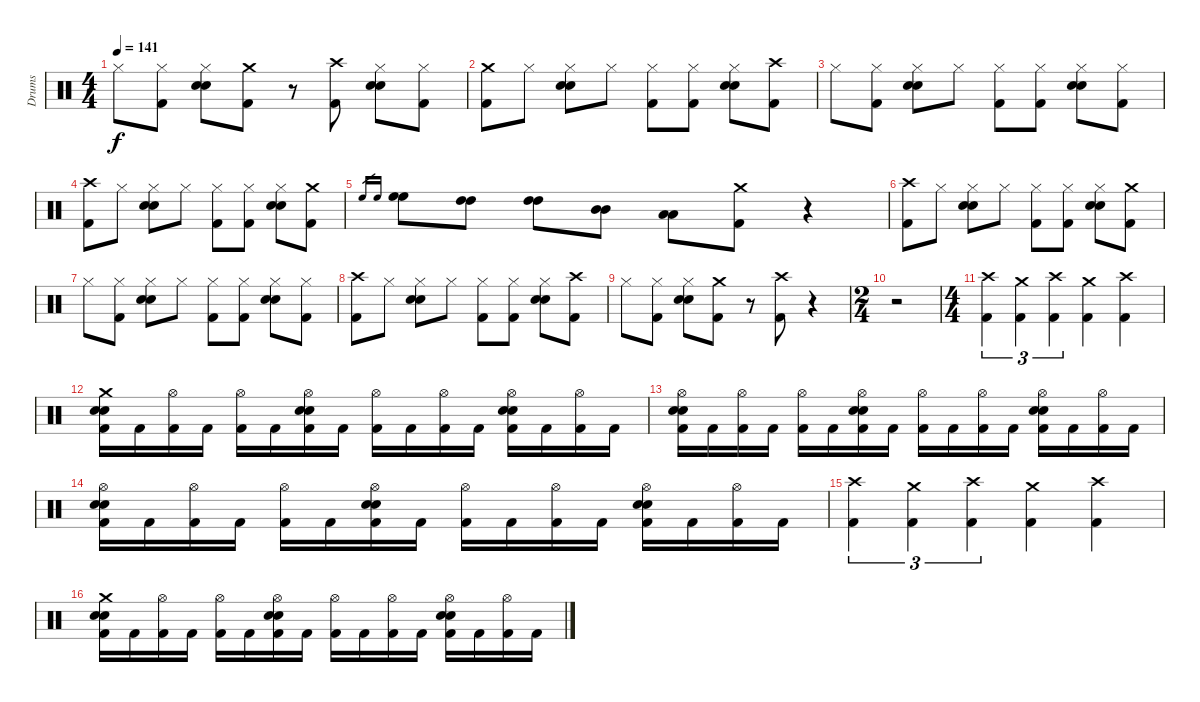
\track ("Drums " "Drums ") {instrument percussion}
\staff {score}
\articulation defaults
\ts (4 4)
\tempo 141
\clef neutral
\ks c "Hi-Hat (closed)".8{dy f}
("Hi-Hat (closed)" "Kick (hit) 2").8 ("Hi-Hat (closed)" "Snare (hit) 2" "Electric Snare (hit)").8 ("Crash medium (hit)" "Kick (hit) 2").8 r.8 ("Crash high (hit)" "Kick (hit) 2").8 ("Hi-Hat (closed)" "Snare (hit) 2" "Electric Snare (hit)").8 ("Hi-Hat (closed)" "Kick (hit) 2").8 |
("Crash medium (hit)" "Kick (hit) 2").8 "Hi-Hat (closed)".8 ("Hi-Hat (closed)" "Snare (hit) 2" "Electric Snare (hit)").8 "Hi-Hat (closed)".8 ("Hi-Hat (closed)" "Kick (hit) 2").8 ("Hi-Hat (closed)" "Kick (hit) 2").8 ("Hi-Hat (closed)" "Snare (hit) 2" "Electric Snare (hit)").8 ("Crash high (hit)" "Kick (hit) 2").8 |
"Hi-Hat (closed)".8 ("Hi-Hat (closed)" "Kick (hit) 2").8 ("Hi-Hat (closed)" "Snare (hit) 2" "Electric Snare (hit)").8 "Hi-Hat (closed)".8 ("Hi-Hat (closed)" "Kick (hit) 2").8 ("Hi-Hat (closed)" "Kick (hit) 2").8 ("Hi-Hat (closed)" "Snare (hit) 2" "Electric Snare (hit)").8 ("Hi-Hat (closed)" "Kick (hit) 2").8 |
("Crash high (hit)" "Kick (hit) 2").8 "Hi-Hat (closed)".8 ("Hi-Hat (closed)" "Snare (hit) 2" "Electric Snare (hit)").8 "Hi-Hat (closed)".8 ("Hi-Hat (closed)" "Kick (hit) 2").8 ("Hi-Hat (closed)" "Kick (hit) 2").8 ("Hi-Hat (closed)" "Snare (hit) 2" "Electric Snare (hit)").8 ("Crash medium (hit)" "Kick (hit) 2").8 |
"High Floor Tom (hit)".16{gr} "High Floor Tom (hit)".16{gr} ("High Floor Tom (hit)" "High Floor Tom (hit)").8 ("High Tom (hit)" "High Tom (hit)").8 ("High Tom (hit)" "High Tom (hit)").8 ("Mid Tom (hit)" "Mid Tom (hit)").8 ("Low Tom (hit)" "Low Tom (hit)").8 ("Crash medium (hit)" "Kick (hit) 2").8 r.4 |
("Crash high (hit)" "Kick (hit) 2").8 "Hi-Hat (closed)".8 ("Hi-Hat (closed)" "Snare (hit) 2" "Electric Snare (hit)").8 "Hi-Hat (closed)".8 ("Hi-Hat (closed)" "Kick (hit) 2").8 ("Hi-Hat (closed)" "Kick (hit) 2").8 ("Hi-Hat (closed)" "Snare (hit) 2" "Electric Snare (hit)").8 ("Crash medium (hit)" "Kick (hit) 2").8 |
"Hi-Hat (closed)".8 ("Hi-Hat (closed)" "Kick (hit) 2").8 ("Hi-Hat (closed)" "Snare (hit) 2" "Electric Snare (hit)").8 "Hi-Hat (closed)".8 ("Hi-Hat (closed)" "Kick (hit) 2").8 ("Hi-Hat (closed)" "Kick (hit) 2").8 ("Hi-Hat (closed)" "Snare (hit) 2" "Electric Snare (hit)").8 ("Hi-Hat (closed)" "Kick (hit) 2").8 |
("Crash high (hit)" "Kick (hit) 2").8 "Hi-Hat (closed)".8 ("Hi-Hat (closed)" "Snare (hit) 2" "Electric Snare (hit)").8 "Hi-Hat (closed)".8 ("Hi-Hat (closed)" "Kick (hit) 2").8 ("Hi-Hat (closed)" "Kick (hit) 2").8 ("Hi-Hat (closed)" "Snare (hit) 2" "Electric Snare (hit)").8 ("Crash high (hit)" "Kick (hit) 2").8 |
"Hi-Hat (closed)".8 ("Hi-Hat (closed)" "Kick (hit) 2").8 ("Hi-Hat (closed)" "Snare (hit) 2" "Electric Snare (hit)").8 ("Crash medium (hit)" "Kick (hit) 2").8 r.8 ("Crash high (hit)" "Kick (hit) 2").8 r.4 |
\ts (2 4)
r.2 |
\ts (4 4)
("Crash high (hit)" "Kick (hit) 2").4{tu (3 2)} ("Crash medium (hit)" "Kick (hit) 2").4{tu (3 2)} ("Crash high (hit)" "Kick (hit) 2").4{tu (3 2)} ("Crash medium (hit)" "Kick (hit) 2").4 ("Crash high (hit)" "Kick (hit) 2").4 |
("Crash medium (hit)" "Snare (hit) 2" "Electric Snare (hit)" "Kick (hit) 2").16 "Kick (hit) 2".16 ("Hi-Hat (open)" "Kick (hit) 2").16 "Kick (hit) 2".16 ("Hi-Hat (open)" "Kick (hit) 2").16 "Kick (hit) 2".16 ("Hi-Hat (open)" "Snare (hit) 2" "Electric Snare (hit)" "Kick (hit) 2").16 "Kick (hit) 2".16 ("Hi-Hat (open)" "Kick (hit) 2").16 "Kick (hit) 2".16 ("Hi-Hat (open)" "Kick (hit) 2").16 "Kick (hit) 2".16 ("Hi-Hat (open)" "Snare (hit) 2" "Electric Snare (hit)" "Kick (hit) 2").16 "Kick (hit) 2".16 ("Hi-Hat (open)" "Kick (hit) 2").16 "Kick (hit) 2".16 |
("Hi-Hat (open)" "Snare (hit) 2" "Electric Snare (hit)" "Kick (hit) 2").16 "Kick (hit) 2".16 ("Hi-Hat (open)" "Kick (hit) 2").16 "Kick (hit) 2".16 ("Hi-Hat (open)" "Kick (hit) 2").16 "Kick (hit) 2".16 ("Hi-Hat (open)" "Snare (hit) 2" "Electric Snare (hit)" "Kick (hit) 2").16 "Kick (hit) 2".16 ("Hi-Hat (open)" "Kick (hit) 2").16 "Kick (hit) 2".16 ("Hi-Hat (open)" "Kick (hit) 2").16 "Kick (hit) 2".16 ("Hi-Hat (open)" "Snare (hit) 2" "Electric Snare (hit)" "Kick (hit) 2").16 "Kick (hit) 2".16 ("Hi-Hat (open)" "Kick (hit) 2").16 "Kick (hit) 2".16 |
("Hi-Hat (open)" "Snare (hit) 2" "Electric Snare (hit)" "Kick (hit) 2").16 "Kick (hit) 2".16 ("Hi-Hat (open)" "Kick (hit) 2").16 "Kick (hit) 2".16 ("Hi-Hat (open)" "Kick (hit) 2").16 "Kick (hit) 2".16 ("Hi-Hat (open)" "Snare (hit) 2" "Electric Snare (hit)" "Kick (hit) 2").16 "Kick (hit) 2".16 ("Hi-Hat (open)" "Kick (hit) 2").16 "Kick (hit) 2".16 ("Hi-Hat (open)" "Kick (hit) 2").16 "Kick (hit) 2".16 ("Hi-Hat (open)" "Snare (hit) 2" "Electric Snare (hit)" "Kick (hit) 2").16 "Kick (hit) 2".16 ("Hi-Hat (open)" "Kick (hit) 2").16 "Kick (hit) 2".16 |
("Crash high (hit)" "Kick (hit) 2").4{tu (3 2)} ("Crash medium (hit)" "Kick (hit) 2").4{tu (3 2)} ("Crash high (hit)" "Kick (hit) 2").4{tu (3 2)} ("Crash medium (hit)" "Kick (hit) 2").4 ("Crash high (hit)" "Kick (hit) 2").4 |
("Crash medium (hit)" "Snare (hit) 2" "Electric Snare (hit)" "Kick (hit) 2").16 "Kick (hit) 2".16 ("Hi-Hat (open)" "Kick (hit) 2").16 "Kick (hit) 2".16 ("Hi-Hat (open)" "Kick (hit) 2").16 "Kick (hit) 2".16 ("Hi-Hat (open)" "Snare (hit) 2" "Electric Snare (hit)" "Kick (hit) 2").16 "Kick (hit) 2".16 ("Hi-Hat (open)" "Kick (hit) 2").16 "Kick (hit) 2".16 ("Hi-Hat (open)" "Kick (hit) 2").16 "Kick (hit) 2".16 ("Hi-Hat (open)" "Snare (hit) 2" "Electric Snare (hit)" "Kick (hit) 2").16 "Kick (hit) 2".16 ("Hi-Hat (open)" "Kick (hit) 2").16 "Kick (hit) 2".16
